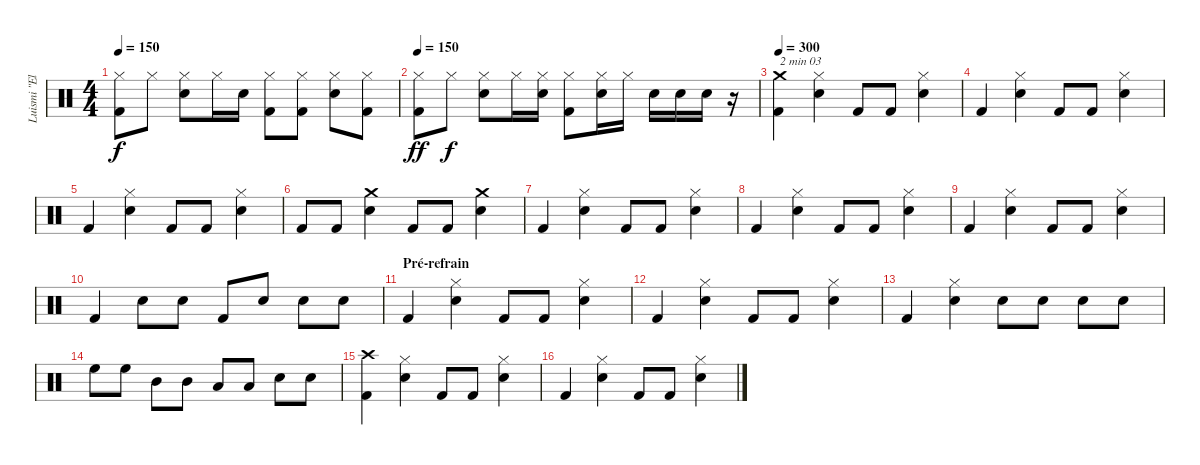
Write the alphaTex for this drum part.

\track ("Luismi \"El Papi\"" "Luismi \"El") {instrument percussion}
\staff {score}
\articulation defaults
\ts (4 4)
\tempo 150
\clef neutral
\ks c
("Hi-Hat (closed)" "Kick (hit) 2").8{dy f} "Hi-Hat (closed)".8 ("Hi-Hat (closed)" "Snare (hit) 2").8 "Hi-Hat (closed)".16 "Snare (hit) 2".16 ("Hi-Hat (closed)" "Kick (hit) 2").8 ("Hi-Hat (closed)" "Kick (hit) 2").8 ("Hi-Hat (closed)" "Snare (hit) 2").8 ("Hi-Hat (closed)" "Kick (hit) 2").8 |
\tempo 150
("Hi-Hat (closed)" "Kick (hit) 2").8{dy ff} "Hi-Hat (closed)".8{dy f} ("Hi-Hat (closed)" "Snare (hit) 2").8 "Hi-Hat (closed)".16 ("Hi-Hat (closed)" "Snare (hit) 2").16 ("Hi-Hat (closed)" "Kick (hit) 2").8 ("Hi-Hat (closed)" "Snare (hit) 2").16 "Hi-Hat (closed)".16 "Snare (hit) 2".16 "Snare (hit) 2".16 "Snare (hit) 2".16 r.16 |
\tempo 300
("Crash medium (hit)" "Kick (hit) 2").4{txt "2 min 03"} ("Hi-Hat (closed)" "Snare (hit) 2").4 "Kick (hit) 2".8 "Kick (hit) 2".8 ("Hi-Hat (closed)" "Snare (hit) 2").4 |
"Kick (hit) 2".4 ("Hi-Hat (closed)" "Snare (hit) 2").4 "Kick (hit) 2".8 "Kick (hit) 2".8 ("Hi-Hat (closed)" "Snare (hit) 2").4 |
"Kick (hit) 2".4 ("Hi-Hat (closed)" "Snare (hit) 2").4 "Kick (hit) 2".8 "Kick (hit) 2".8 ("Hi-Hat (closed)" "Snare (hit) 2").4 |
"Kick (hit) 2".8 "Kick (hit) 2".8 ("Crash medium (hit)" "Snare (hit) 2").4 "Kick (hit) 2".8 "Kick (hit) 2".8 ("Crash medium (hit)" "Snare (hit) 2").4 |
"Kick (hit) 2".4 ("Hi-Hat (closed)" "Snare (hit) 2").4 "Kick (hit) 2".8 "Kick (hit) 2".8 ("Hi-Hat (closed)" "Snare (hit) 2").4 |
"Kick (hit) 2".4 ("Hi-Hat (closed)" "Snare (hit) 2").4 "Kick (hit) 2".8 "Kick (hit) 2".8 ("Hi-Hat (closed)" "Snare (hit) 2").4 |
"Kick (hit) 2".4 ("Hi-Hat (closed)" "Snare (hit) 2").4 "Kick (hit) 2".8 "Kick (hit) 2".8 ("Hi-Hat (closed)" "Snare (hit) 2").4 |
"Kick (hit) 2".4 "Snare (hit) 2".8 "Snare (hit) 2".8 "Kick (hit) 2".8 "Snare (hit) 2".8 "Snare (hit) 2".8 "Snare (hit) 2".8 |
\section ("" "Pré-refrain")
"Kick (hit) 2".4 ("Hi-Hat (closed)" "Snare (hit) 2").4 "Kick (hit) 2".8 "Kick (hit) 2".8 ("Hi-Hat (closed)" "Snare (hit) 2").4 |
"Kick (hit) 2".4 ("Hi-Hat (closed)" "Snare (hit) 2").4 "Kick (hit) 2".8 "Kick (hit) 2".8 ("Hi-Hat (closed)" "Snare (hit) 2").4 |
"Kick (hit) 2".4 ("Hi-Hat (closed)" "Snare (hit) 2").4 "Snare (hit) 2".8 "Snare (hit) 2".8 "Snare (hit) 2".8 "Snare (hit) 2".8 |
"High Floor Tom (hit)".8 "High Floor Tom (hit)".8 "Mid Tom (hit)".8 "Mid Tom (hit)".8 "Low Tom (hit)".8 "Low Tom (hit)".8 "Snare (hit) 2".8 "Snare (hit) 2".8 |
("Crash high (hit)" "Kick (hit) 2").4 ("Hi-Hat (closed)" "Snare (hit) 2").4 "Kick (hit) 2".8 "Kick (hit) 2".8 ("Hi-Hat (closed)" "Snare (hit) 2").4 |
"Kick (hit) 2".4 ("Hi-Hat (closed)" "Snare (hit) 2").4 "Kick (hit) 2".8 "Kick (hit) 2".8 ("Hi-Hat (closed)" "Snare (hit) 2").4
